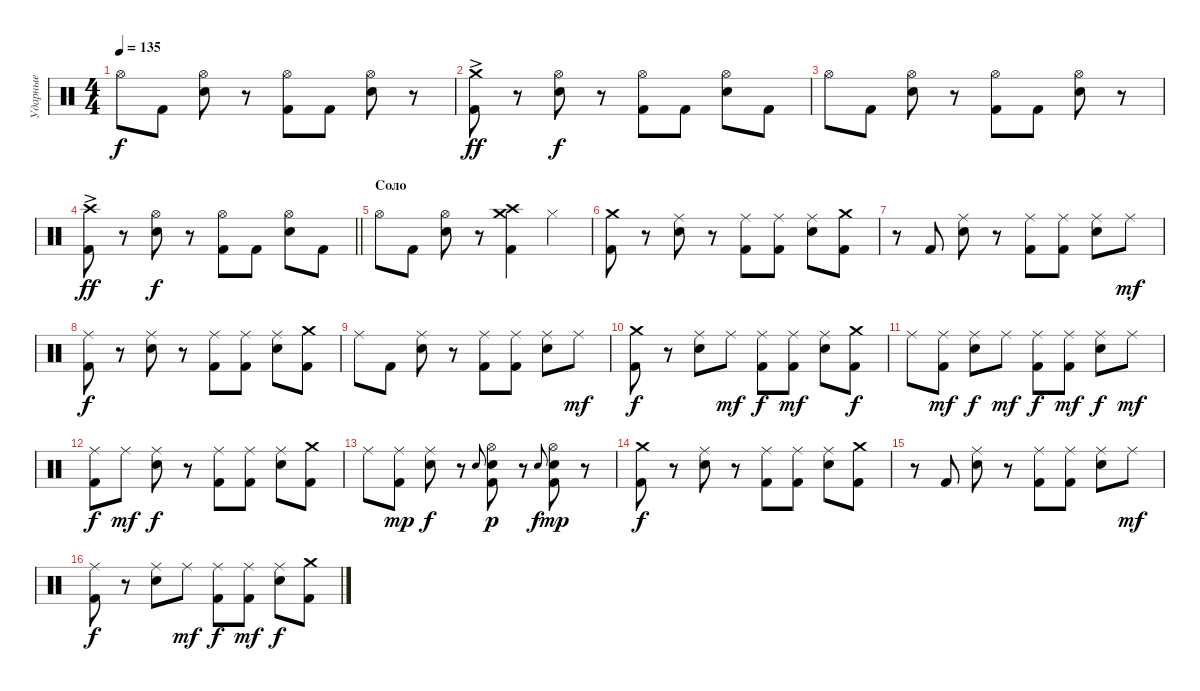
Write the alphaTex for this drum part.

\track ("Ударные" "Ударные") {instrument percussion}
\staff
\articulation defaults
\ts (4 4)
\tempo 135
\clef neutral
\ks c "Hi-Hat (open)".8{dy f} "Kick (hit) 2".8
("Hi-Hat (open)" "Electric Snare (hit)").8 r.8 ("Hi-Hat (open)" "Kick (hit) 2").8 "Kick (hit) 2".8 ("Hi-Hat (open)" "Electric Snare (hit)").8 r.8 |
("Crash medium (hit)"{ac} "Kick (hit) 2").8{dy ff} r.8 ("Hi-Hat (open)" "Electric Snare (hit)").8{dy f} r.8 ("Hi-Hat (open)" "Kick (hit) 2").8 "Kick (hit) 2".8 ("Hi-Hat (open)" "Electric Snare (hit)").8 "Kick (hit) 2".8 |
"Hi-Hat (open)".8 "Kick (hit) 2".8 ("Hi-Hat (open)" "Electric Snare (hit)").8 r.8 ("Hi-Hat (open)" "Kick (hit) 2").8 "Kick (hit) 2".8 ("Hi-Hat (open)" "Electric Snare (hit)").8 r.8 |
\barLineRight lightlight
("Crash high (hit)"{ac} "Kick (hit) 2").8{dy ff} r.8 ("Hi-Hat (open)" "Electric Snare (hit)").8{dy f} r.8 ("Hi-Hat (open)" "Kick (hit) 2").8 "Kick (hit) 2".8 ("Hi-Hat (open)" "Electric Snare (hit)").8 "Kick (hit) 2".8 |
\section ("" "Соло")
"Hi-Hat (open)".8 "Kick (hit) 2".8 ("Hi-Hat (open)" "Electric Snare (hit)").8 r.8 ("Crash high (hit)" "Crash medium (hit)" "Kick (hit) 2").4 "Hi-Hat (closed)".4 |
("Crash medium (hit)" "Kick (hit) 2").8 r.8 ("Ride (middle)" "Electric Snare (hit)").8 r.8 ("Ride (middle)" "Kick (hit) 2").8 ("Ride (middle)" "Kick (hit) 2").8 ("Ride (middle)" "Electric Snare (hit)").8 ("Crash medium (hit)" "Kick (hit) 2").8 |
r.8 "Kick (hit) 2".8 ("Ride (middle)" "Electric Snare (hit)").8 r.8 ("Ride (middle)" "Kick (hit) 2").8 ("Ride (middle)" "Kick (hit) 2").8 ("Ride (middle)" "Electric Snare (hit)").8 "Ride (middle)".8{dy mf} |
("Ride (middle)" "Kick (hit) 2").8{dy f} r.8 ("Ride (middle)" "Electric Snare (hit)").8 r.8 ("Ride (middle)" "Kick (hit) 2").8 ("Ride (middle)" "Kick (hit) 2").8 ("Ride (middle)" "Electric Snare (hit)").8 ("Crash medium (hit)" "Kick (hit) 2").8 |
"Ride (middle)".8 "Kick (hit) 2".8 ("Ride (middle)" "Electric Snare (hit)").8 r.8 ("Ride (middle)" "Kick (hit) 2").8 ("Ride (middle)" "Kick (hit) 2").8 ("Ride (middle)" "Electric Snare (hit)").8 "Ride (middle)".8{dy mf} |
("Crash medium (hit)" "Kick (hit) 2").8{dy f} r.8 ("Ride (middle)" "Electric Snare (hit)").8 "Ride (middle)".8{dy mf} ("Ride (middle)" "Kick (hit) 2").8{dy f} ("Ride (middle)" "Kick (hit) 2").8{dy mf} ("Ride (middle)" "Electric Snare (hit)").8 ("Crash medium (hit)" "Kick (hit) 2").8{dy f} |
"Ride (middle)".8 ("Ride (middle)" "Kick (hit) 2").8{dy mf} ("Ride (middle)" "Electric Snare (hit)").8{dy f} "Ride (middle)".8{dy mf} ("Ride (middle)" "Kick (hit) 2").8{dy f} ("Ride (middle)" "Kick (hit) 2").8{dy mf} ("Ride (middle)" "Electric Snare (hit)").8{dy f} "Ride (middle)".8{dy mf} |
("Ride (middle)" "Kick (hit) 2").8{dy f} "Ride (middle)".8{dy mf} ("Ride (middle)" "Electric Snare (hit)").8{dy f} r.8 ("Ride (middle)" "Kick (hit) 2").8 ("Ride (middle)" "Kick (hit) 2").8 ("Ride (middle)" "Electric Snare (hit)").8 ("Crash medium (hit)" "Kick (hit) 2").8 |
"Ride (middle)".8 ("Ride (middle)" "Kick (hit) 2").8{dy mp} ("Ride (middle)" "Electric Snare (hit)").8{dy f} r.8 "Electric Snare (hit)".8{gr onbeat} ("Hi-Hat (open)" "Electric Snare (hit)" "Kick (hit) 2").8{dy p} r.8 "Electric Snare (hit)".8{gr onbeat dy f} ("Hi-Hat (open)" "Electric Snare (hit)" "Kick (hit) 2").8{dy mp} r.8 |
("Crash medium (hit)" "Kick (hit) 2").8{dy f} r.8 ("Ride (middle)" "Electric Snare (hit)").8 r.8 ("Ride (middle)" "Kick (hit) 2").8 ("Ride (middle)" "Kick (hit) 2").8 ("Ride (middle)" "Electric Snare (hit)").8 ("Crash medium (hit)" "Kick (hit) 2").8 |
r.8 "Kick (hit) 2".8 ("Ride (middle)" "Electric Snare (hit)").8 r.8 ("Ride (middle)" "Kick (hit) 2").8 ("Ride (middle)" "Kick (hit) 2").8 ("Ride (middle)" "Electric Snare (hit)").8 "Ride (middle)".8{dy mf} |
("Ride (middle)" "Kick (hit) 2").8{dy f} r.8 ("Ride (middle)" "Electric Snare (hit)").8 "Ride (middle)".8{dy mf} ("Ride (middle)" "Kick (hit) 2").8{dy f} ("Ride (middle)" "Kick (hit) 2").8{dy mf} ("Ride (middle)" "Electric Snare (hit)").8{dy f} ("Crash medium (hit)" "Kick (hit) 2").8
